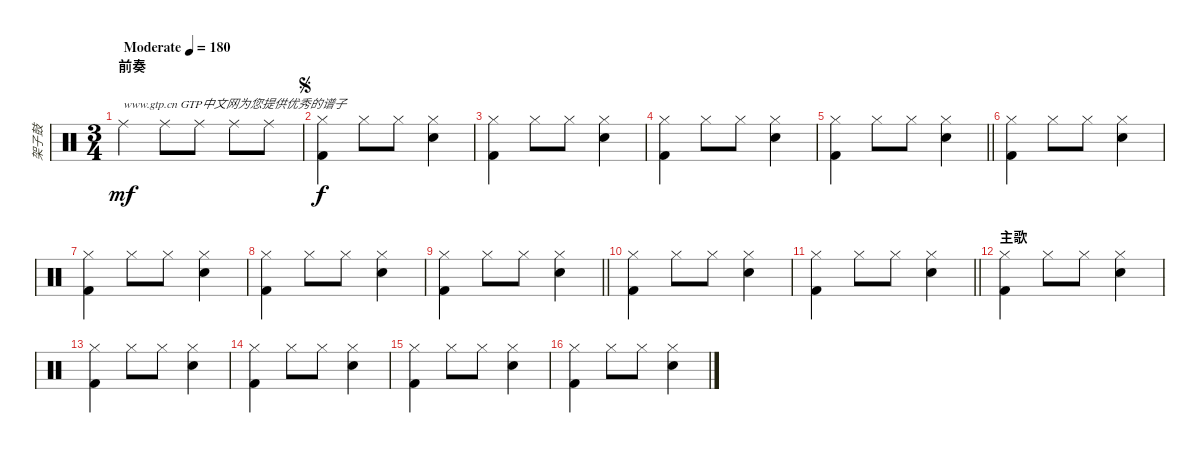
\track ("架子鼓" "架子鼓") {instrument percussion}
\staff {score}
\articulation defaults
\ts (3 4)
\section ("" "前奏")
\tempo (180 "Moderate")
\clef neutral
\ks c "Ride (middle)".4{txt "www.gtp.cn GTP中文网为您提供优秀的谱子" dy mf} "Ride (middle)".8 "Ride (middle)".8 "Ride (middle)".8 "Ride (middle)".8
|
\jump segno
("Hi-Hat (closed)" "Kick (hit) 2").4{dy f} "Hi-Hat (closed)".8 "Hi-Hat (closed)".8 ("Hi-Hat (closed)" "Electric Snare (hit)").4 |
("Hi-Hat (closed)" "Kick (hit) 2").4 "Hi-Hat (closed)".8 "Hi-Hat (closed)".8 ("Hi-Hat (closed)" "Electric Snare (hit)").4 |
("Hi-Hat (closed)" "Kick (hit) 2").4 "Hi-Hat (closed)".8 "Hi-Hat (closed)".8 ("Hi-Hat (closed)" "Electric Snare (hit)").4 |
\barLineRight lightlight
("Hi-Hat (closed)" "Kick (hit) 2").4 "Hi-Hat (closed)".8 "Hi-Hat (closed)".8 ("Hi-Hat (closed)" "Electric Snare (hit)").4 |
("Hi-Hat (closed)" "Kick (hit) 2").4 "Hi-Hat (closed)".8 "Hi-Hat (closed)".8 ("Hi-Hat (closed)" "Electric Snare (hit)").4 |
("Hi-Hat (closed)" "Kick (hit) 2").4 "Hi-Hat (closed)".8 "Hi-Hat (closed)".8 ("Hi-Hat (closed)" "Electric Snare (hit)").4 |
("Hi-Hat (closed)" "Kick (hit) 2").4 "Hi-Hat (closed)".8 "Hi-Hat (closed)".8 ("Hi-Hat (closed)" "Electric Snare (hit)").4 |
\barLineRight lightlight
("Hi-Hat (closed)" "Kick (hit) 2").4 "Hi-Hat (closed)".8 "Hi-Hat (closed)".8 ("Hi-Hat (closed)" "Electric Snare (hit)").4 |
("Hi-Hat (closed)" "Kick (hit) 2").4 "Hi-Hat (closed)".8 "Hi-Hat (closed)".8 ("Hi-Hat (closed)" "Electric Snare (hit)").4 |
\barLineRight lightlight
("Hi-Hat (closed)" "Kick (hit) 2").4 "Hi-Hat (closed)".8 "Hi-Hat (closed)".8 ("Hi-Hat (closed)" "Electric Snare (hit)").4 |
\section ("" "主歌")
("Hi-Hat (closed)" "Kick (hit) 2").4 "Hi-Hat (closed)".8 "Hi-Hat (closed)".8 ("Hi-Hat (closed)" "Electric Snare (hit)").4 |
("Hi-Hat (closed)" "Kick (hit) 2").4 "Hi-Hat (closed)".8 "Hi-Hat (closed)".8 ("Hi-Hat (closed)" "Electric Snare (hit)").4 |
("Hi-Hat (closed)" "Kick (hit) 2").4 "Hi-Hat (closed)".8 "Hi-Hat (closed)".8 ("Hi-Hat (closed)" "Electric Snare (hit)").4 |
("Hi-Hat (closed)" "Kick (hit) 2").4 "Hi-Hat (closed)".8 "Hi-Hat (closed)".8 ("Hi-Hat (closed)" "Electric Snare (hit)").4 |
("Hi-Hat (closed)" "Kick (hit) 2").4 "Hi-Hat (closed)".8 "Hi-Hat (closed)".8 ("Hi-Hat (closed)" "Electric Snare (hit)").4
